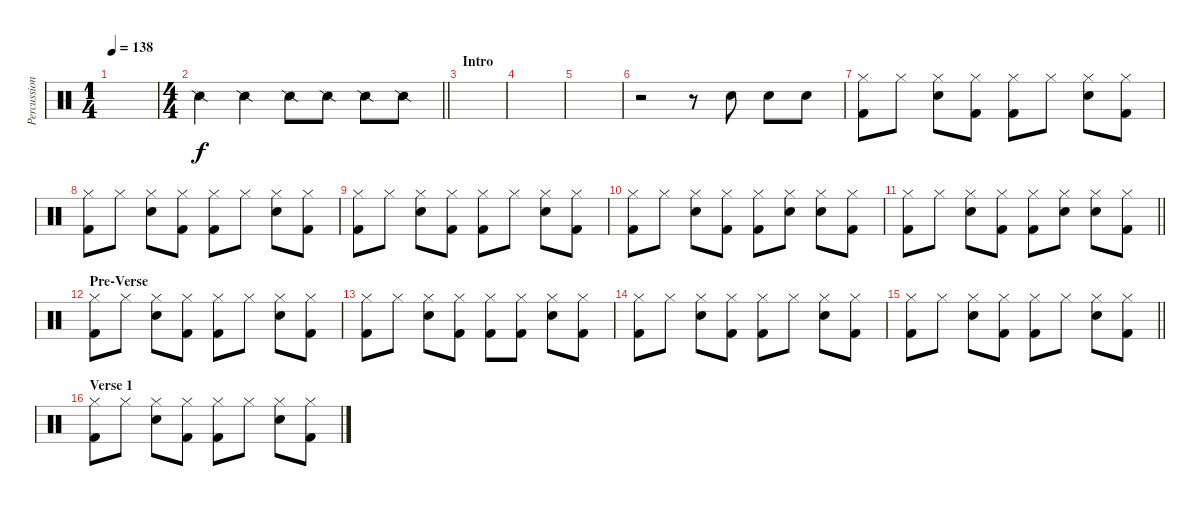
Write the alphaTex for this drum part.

\track ("Percussion" "Percussion") {instrument percussion}
\staff {score}
\articulation defaults
\ts (1 4)
\tempo 138
\clef neutral
\ks c
|
\ts (4 4)
\barLineRight lightlight "Snare (side stick) 2".4 "Snare (side stick) 2".4 "Snare (side stick) 2".8 "Snare (side stick) 2".8 "Snare (side stick) 2".8 "Snare (side stick) 2".8
|
\section ("" "Intro")
|
|
|
r.2 r.8 "Electric Snare (hit)".8 "Electric Snare (hit)".8 "Electric Snare (hit)".8 |
("Hi-Hat (closed)" "Kick (hit) 2").8 "Hi-Hat (closed)".8 ("Hi-Hat (closed)" "Electric Snare (hit)").8 ("Hi-Hat (closed)" "Kick (hit) 2").8 ("Hi-Hat (closed)" "Kick (hit) 2").8 "Hi-Hat (closed)".8 ("Hi-Hat (closed)" "Electric Snare (hit)").8 ("Hi-Hat (closed)" "Kick (hit) 2").8 |
("Hi-Hat (closed)" "Kick (hit) 2").8 "Hi-Hat (closed)".8 ("Hi-Hat (closed)" "Electric Snare (hit)").8 ("Hi-Hat (closed)" "Kick (hit) 2").8 ("Hi-Hat (closed)" "Kick (hit) 2").8 "Hi-Hat (closed)".8 ("Hi-Hat (closed)" "Electric Snare (hit)").8 ("Hi-Hat (closed)" "Kick (hit) 2").8 |
("Hi-Hat (closed)" "Kick (hit) 2").8 "Hi-Hat (closed)".8 ("Hi-Hat (closed)" "Electric Snare (hit)").8 ("Hi-Hat (closed)" "Kick (hit) 2").8 ("Hi-Hat (closed)" "Kick (hit) 2").8 "Hi-Hat (closed)".8 ("Hi-Hat (closed)" "Electric Snare (hit)").8 ("Hi-Hat (closed)" "Kick (hit) 2").8 |
("Hi-Hat (closed)" "Kick (hit) 2").8 "Hi-Hat (closed)".8 ("Hi-Hat (closed)" "Electric Snare (hit)").8 ("Hi-Hat (closed)" "Kick (hit) 2").8 ("Hi-Hat (closed)" "Kick (hit) 2").8 ("Hi-Hat (closed)" "Electric Snare (hit)").8 ("Hi-Hat (closed)" "Electric Snare (hit)").8 ("Hi-Hat (closed)" "Kick (hit) 2").8 |
\barLineRight lightlight
("Hi-Hat (closed)" "Kick (hit) 2").8 "Hi-Hat (closed)".8 ("Hi-Hat (closed)" "Electric Snare (hit)").8 ("Hi-Hat (closed)" "Kick (hit) 2").8 ("Hi-Hat (closed)" "Kick (hit) 2").8 ("Hi-Hat (closed)" "Electric Snare (hit)").8 ("Hi-Hat (closed)" "Electric Snare (hit)").8 ("Hi-Hat (closed)" "Kick (hit) 2").8 |
\section ("" "Pre-Verse")
("Hi-Hat (closed)" "Kick (hit) 2").8 "Hi-Hat (closed)".8 ("Hi-Hat (closed)" "Electric Snare (hit)").8 ("Hi-Hat (closed)" "Kick (hit) 2").8 ("Hi-Hat (closed)" "Kick (hit) 2").8 "Hi-Hat (closed)".8 ("Hi-Hat (closed)" "Electric Snare (hit)").8 ("Hi-Hat (closed)" "Kick (hit) 2").8 |
("Hi-Hat (closed)" "Kick (hit) 2").8 "Hi-Hat (closed)".8 ("Hi-Hat (closed)" "Electric Snare (hit)").8 ("Hi-Hat (closed)" "Kick (hit) 2").8 ("Hi-Hat (closed)" "Kick (hit) 2").8 ("Hi-Hat (closed)" "Kick (hit) 2").8 ("Hi-Hat (closed)" "Electric Snare (hit)").8 ("Hi-Hat (closed)" "Kick (hit) 2").8 |
("Hi-Hat (closed)" "Kick (hit) 2").8 "Hi-Hat (closed)".8 ("Hi-Hat (closed)" "Electric Snare (hit)").8 ("Hi-Hat (closed)" "Kick (hit) 2").8 ("Hi-Hat (closed)" "Kick (hit) 2").8 "Hi-Hat (closed)".8 ("Hi-Hat (closed)" "Electric Snare (hit)").8 ("Hi-Hat (closed)" "Kick (hit) 2").8 |
\barLineRight lightlight
("Hi-Hat (closed)" "Kick (hit) 2").8 "Hi-Hat (closed)".8 ("Hi-Hat (closed)" "Electric Snare (hit)").8 ("Hi-Hat (closed)" "Kick (hit) 2").8 ("Hi-Hat (closed)" "Kick (hit) 2").8 "Hi-Hat (closed)".8 ("Hi-Hat (closed)" "Electric Snare (hit)").8 ("Hi-Hat (closed)" "Kick (hit) 2").8 |
\section ("" "Verse 1")
("Hi-Hat (closed)" "Kick (hit) 2").8 "Hi-Hat (closed)".8 ("Hi-Hat (closed)" "Electric Snare (hit)").8 ("Hi-Hat (closed)" "Kick (hit) 2").8 ("Hi-Hat (closed)" "Kick (hit) 2").8 "Hi-Hat (closed)".8 ("Hi-Hat (closed)" "Electric Snare (hit)").8 ("Hi-Hat (closed)" "Kick (hit) 2").8
